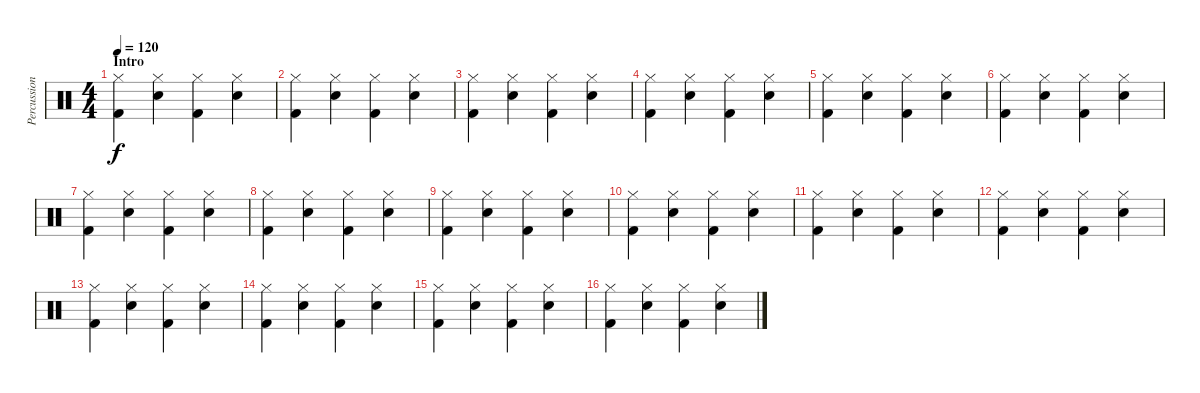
\track ("Percussion" "Percussion") {instrument percussion}
\staff {score}
\articulation defaults
\ts (4 4)
\section ("" "Intro")
\tempo 120
\clef neutral
\ks c
("Hi-Hat (closed)" "Kick (hit) 2").4{dy f} ("Hi-Hat (closed)" "Electric Snare (hit)").4 ("Hi-Hat (closed)" "Kick (hit) 2").4 ("Hi-Hat (closed)" "Electric Snare (hit)").4 |
("Hi-Hat (closed)" "Kick (hit) 2").4 ("Hi-Hat (closed)" "Electric Snare (hit)").4 ("Hi-Hat (closed)" "Kick (hit) 2").4 ("Hi-Hat (closed)" "Electric Snare (hit)").4 |
("Hi-Hat (closed)" "Kick (hit) 2").4 ("Hi-Hat (closed)" "Electric Snare (hit)").4 ("Hi-Hat (closed)" "Kick (hit) 2").4 ("Hi-Hat (closed)" "Electric Snare (hit)").4 |
("Hi-Hat (closed)" "Kick (hit) 2").4 ("Hi-Hat (closed)" "Electric Snare (hit)").4 ("Hi-Hat (closed)" "Kick (hit) 2").4 ("Hi-Hat (closed)" "Electric Snare (hit)").4 |
("Hi-Hat (closed)" "Kick (hit) 2").4 ("Hi-Hat (closed)" "Electric Snare (hit)").4 ("Hi-Hat (closed)" "Kick (hit) 2").4 ("Hi-Hat (closed)" "Electric Snare (hit)").4 |
("Hi-Hat (closed)" "Kick (hit) 2").4 ("Hi-Hat (closed)" "Electric Snare (hit)").4 ("Hi-Hat (closed)" "Kick (hit) 2").4 ("Hi-Hat (closed)" "Electric Snare (hit)").4 |
("Hi-Hat (closed)" "Kick (hit) 2").4 ("Hi-Hat (closed)" "Electric Snare (hit)").4 ("Hi-Hat (closed)" "Kick (hit) 2").4 ("Hi-Hat (closed)" "Electric Snare (hit)").4 |
("Hi-Hat (closed)" "Kick (hit) 2").4 ("Hi-Hat (closed)" "Electric Snare (hit)").4 ("Hi-Hat (closed)" "Kick (hit) 2").4 ("Hi-Hat (closed)" "Electric Snare (hit)").4 |
("Hi-Hat (closed)" "Kick (hit) 2").4 ("Hi-Hat (closed)" "Electric Snare (hit)").4 ("Hi-Hat (closed)" "Kick (hit) 2").4 ("Hi-Hat (closed)" "Electric Snare (hit)").4 |
("Hi-Hat (closed)" "Kick (hit) 2").4 ("Hi-Hat (closed)" "Electric Snare (hit)").4 ("Hi-Hat (closed)" "Kick (hit) 2").4 ("Hi-Hat (closed)" "Electric Snare (hit)").4 |
("Hi-Hat (closed)" "Kick (hit) 2").4 ("Hi-Hat (closed)" "Electric Snare (hit)").4 ("Hi-Hat (closed)" "Kick (hit) 2").4 ("Hi-Hat (closed)" "Electric Snare (hit)").4 |
("Hi-Hat (closed)" "Kick (hit) 2").4 ("Hi-Hat (closed)" "Electric Snare (hit)").4 ("Hi-Hat (closed)" "Kick (hit) 2").4 ("Hi-Hat (closed)" "Electric Snare (hit)").4 |
("Hi-Hat (closed)" "Kick (hit) 2").4 ("Hi-Hat (closed)" "Electric Snare (hit)").4 ("Hi-Hat (closed)" "Kick (hit) 2").4 ("Hi-Hat (closed)" "Electric Snare (hit)").4 |
("Hi-Hat (closed)" "Kick (hit) 2").4 ("Hi-Hat (closed)" "Electric Snare (hit)").4 ("Hi-Hat (closed)" "Kick (hit) 2").4 ("Hi-Hat (closed)" "Electric Snare (hit)").4 |
("Hi-Hat (closed)" "Kick (hit) 2").4 ("Hi-Hat (closed)" "Electric Snare (hit)").4 ("Hi-Hat (closed)" "Kick (hit) 2").4 ("Hi-Hat (closed)" "Electric Snare (hit)").4 |
("Hi-Hat (closed)" "Kick (hit) 2").4 ("Hi-Hat (closed)" "Electric Snare (hit)").4 ("Hi-Hat (closed)" "Kick (hit) 2").4 ("Hi-Hat (closed)" "Electric Snare (hit)").4
